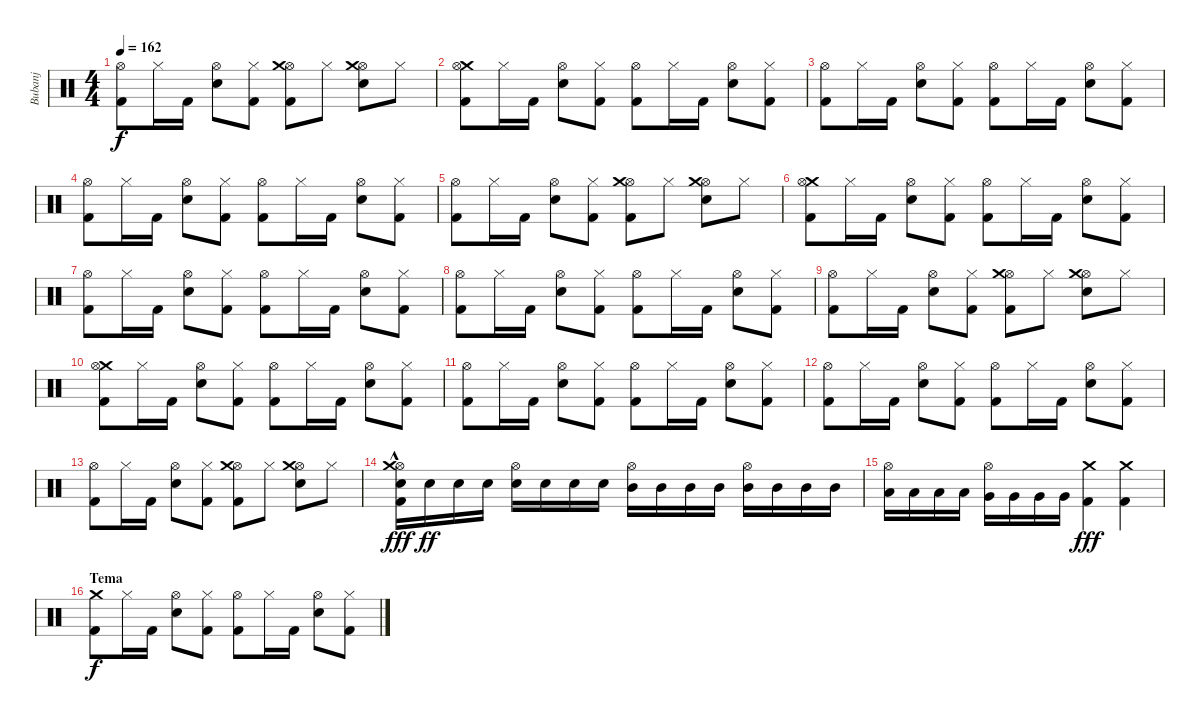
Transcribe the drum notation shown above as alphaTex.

\track ("Bubanj" "Bubanj") {instrument percussion}
\staff {score}
\articulation defaults
\ts (4 4)
\tempo 162
\clef neutral
\ks c
("Hi-Hat (open)" "Kick (hit) 2").8{dy f} "Hi-Hat (closed)".16 "Kick (hit) 2".16 ("Hi-Hat (open)" "Snare (hit) 2").8 ("Hi-Hat (closed)" "Kick (hit) 2").8 ("Hi-Hat (open)" "Kick (hit) 2" "Crash medium (hit)").8 "Hi-Hat (closed)".8 ("Hi-Hat (open)" "Snare (hit) 2" "Crash medium (hit)").8 "Hi-Hat (closed)".8 |
("Crash medium (hit)" "Kick (hit) 2" "Hi-Hat (open)").8 "Hi-Hat (closed)".16 "Kick (hit) 2".16 ("Hi-Hat (open)" "Snare (hit) 2").8 ("Hi-Hat (closed)" "Kick (hit) 2").8 ("Hi-Hat (open)" "Kick (hit) 2").8 "Hi-Hat (closed)".16 "Kick (hit) 2".16 ("Hi-Hat (open)" "Snare (hit) 2").8 ("Hi-Hat (closed)" "Kick (hit) 2").8 |
("Hi-Hat (open)" "Kick (hit) 2").8 "Hi-Hat (closed)".16 "Kick (hit) 2".16 ("Hi-Hat (open)" "Snare (hit) 2").8 ("Hi-Hat (closed)" "Kick (hit) 2").8 ("Hi-Hat (open)" "Kick (hit) 2").8 "Hi-Hat (closed)".16 "Kick (hit) 2".16 ("Hi-Hat (open)" "Snare (hit) 2").8 ("Hi-Hat (closed)" "Kick (hit) 2").8 |
("Hi-Hat (open)" "Kick (hit) 2").8 "Hi-Hat (closed)".16 "Kick (hit) 2".16 ("Hi-Hat (open)" "Snare (hit) 2").8 ("Hi-Hat (closed)" "Kick (hit) 2").8 ("Hi-Hat (open)" "Kick (hit) 2").8 "Hi-Hat (closed)".16 "Kick (hit) 2".16 ("Hi-Hat (open)" "Snare (hit) 2").8 ("Hi-Hat (closed)" "Kick (hit) 2").8 |
("Hi-Hat (open)" "Kick (hit) 2").8 "Hi-Hat (closed)".16 "Kick (hit) 2".16 ("Hi-Hat (open)" "Snare (hit) 2").8 ("Hi-Hat (closed)" "Kick (hit) 2").8 ("Hi-Hat (open)" "Kick (hit) 2" "Crash medium (hit)").8 "Hi-Hat (closed)".8 ("Hi-Hat (open)" "Snare (hit) 2" "Crash medium (hit)").8 "Hi-Hat (closed)".8 |
("Crash medium (hit)" "Kick (hit) 2" "Hi-Hat (open)").8 "Hi-Hat (closed)".16 "Kick (hit) 2".16 ("Hi-Hat (open)" "Snare (hit) 2").8 ("Hi-Hat (closed)" "Kick (hit) 2").8 ("Hi-Hat (open)" "Kick (hit) 2").8 "Hi-Hat (closed)".16 "Kick (hit) 2".16 ("Hi-Hat (open)" "Snare (hit) 2").8 ("Hi-Hat (closed)" "Kick (hit) 2").8 |
("Hi-Hat (open)" "Kick (hit) 2").8 "Hi-Hat (closed)".16 "Kick (hit) 2".16 ("Hi-Hat (open)" "Snare (hit) 2").8 ("Hi-Hat (closed)" "Kick (hit) 2").8 ("Hi-Hat (open)" "Kick (hit) 2").8 "Hi-Hat (closed)".16 "Kick (hit) 2".16 ("Hi-Hat (open)" "Snare (hit) 2").8 ("Hi-Hat (closed)" "Kick (hit) 2").8 |
("Hi-Hat (open)" "Kick (hit) 2").8 "Hi-Hat (closed)".16 "Kick (hit) 2".16 ("Hi-Hat (open)" "Snare (hit) 2").8 ("Hi-Hat (closed)" "Kick (hit) 2").8 ("Hi-Hat (open)" "Kick (hit) 2").8 "Hi-Hat (closed)".16 "Kick (hit) 2".16 ("Hi-Hat (open)" "Snare (hit) 2").8 ("Hi-Hat (closed)" "Kick (hit) 2").8 |
("Hi-Hat (open)" "Kick (hit) 2").8 "Hi-Hat (closed)".16 "Kick (hit) 2".16 ("Hi-Hat (open)" "Snare (hit) 2").8 ("Hi-Hat (closed)" "Kick (hit) 2").8 ("Hi-Hat (open)" "Kick (hit) 2" "Crash medium (hit)").8 "Hi-Hat (closed)".8 ("Hi-Hat (open)" "Snare (hit) 2" "Crash medium (hit)").8 "Hi-Hat (closed)".8 |
("Crash medium (hit)" "Kick (hit) 2" "Hi-Hat (open)").8 "Hi-Hat (closed)".16 "Kick (hit) 2".16 ("Hi-Hat (open)" "Snare (hit) 2").8 ("Hi-Hat (closed)" "Kick (hit) 2").8 ("Hi-Hat (open)" "Kick (hit) 2").8 "Hi-Hat (closed)".16 "Kick (hit) 2".16 ("Hi-Hat (open)" "Snare (hit) 2").8 ("Hi-Hat (closed)" "Kick (hit) 2").8 |
("Hi-Hat (open)" "Kick (hit) 2").8 "Hi-Hat (closed)".16 "Kick (hit) 2".16 ("Hi-Hat (open)" "Snare (hit) 2").8 ("Hi-Hat (closed)" "Kick (hit) 2").8 ("Hi-Hat (open)" "Kick (hit) 2").8 "Hi-Hat (closed)".16 "Kick (hit) 2".16 ("Hi-Hat (open)" "Snare (hit) 2").8 ("Hi-Hat (closed)" "Kick (hit) 2").8 |
("Hi-Hat (open)" "Kick (hit) 2").8 "Hi-Hat (closed)".16 "Kick (hit) 2".16 ("Hi-Hat (open)" "Snare (hit) 2").8 ("Hi-Hat (closed)" "Kick (hit) 2").8 ("Hi-Hat (open)" "Kick (hit) 2").8 "Hi-Hat (closed)".16 "Kick (hit) 2".16 ("Hi-Hat (open)" "Snare (hit) 2").8 ("Hi-Hat (closed)" "Kick (hit) 2").8 |
("Hi-Hat (open)" "Kick (hit) 2").8 "Hi-Hat (closed)".16 "Kick (hit) 2".16 ("Hi-Hat (open)" "Snare (hit) 2").8 ("Hi-Hat (closed)" "Kick (hit) 2").8 ("Hi-Hat (open)" "Kick (hit) 2" "Crash medium (hit)").8 "Hi-Hat (closed)".8 ("Hi-Hat (open)" "Snare (hit) 2" "Crash medium (hit)").8 "Hi-Hat (closed)".8 |
("Snare (hit) 2" "Hi-Hat (open)" "Crash medium (hit)" "Kick (hit) 2"{hac}).16{dy fff} "Snare (hit) 2".16{dy ff} "Snare (hit) 2".16 "Snare (hit) 2".16 ("Snare (hit) 2" "Hi-Hat (open)").16 "Snare (hit) 2".16 "Snare (hit) 2".16 "Snare (hit) 2".16 ("Mid Tom (hit)" "Hi-Hat (open)").16 "Mid Tom (hit)".16 "Mid Tom (hit)".16 "Mid Tom (hit)".16 ("Mid Tom (hit)" "Hi-Hat (open)").16 "Mid Tom (hit)".16 "Mid Tom (hit)".16 "Mid Tom (hit)".16 |
("Low Tom (hit)" "Hi-Hat (open)").16 "Low Tom (hit)".16 "Low Tom (hit)".16 "Low Tom (hit)".16 ("Very Low Tom (hit)" "Hi-Hat (open)").16 "Very Low Tom (hit)".16 "Very Low Tom (hit)".16 "Very Low Tom (hit)".16 ("Kick (hit) 2" "Crash medium (hit)").4{dy fff} ("Kick (hit) 2" "Crash medium (hit)").4 |
\section ("" "Tema")
("Crash medium (hit)" "Kick (hit) 2").8{dy f} "Hi-Hat (closed)".16 "Kick (hit) 2".16 ("Hi-Hat (open)" "Snare (hit) 2").8 ("Hi-Hat (closed)" "Kick (hit) 2").8 ("Hi-Hat (open)" "Kick (hit) 2").8 "Hi-Hat (closed)".16 "Kick (hit) 2".16 ("Hi-Hat (open)" "Snare (hit) 2").8 ("Hi-Hat (closed)" "Kick (hit) 2").8
